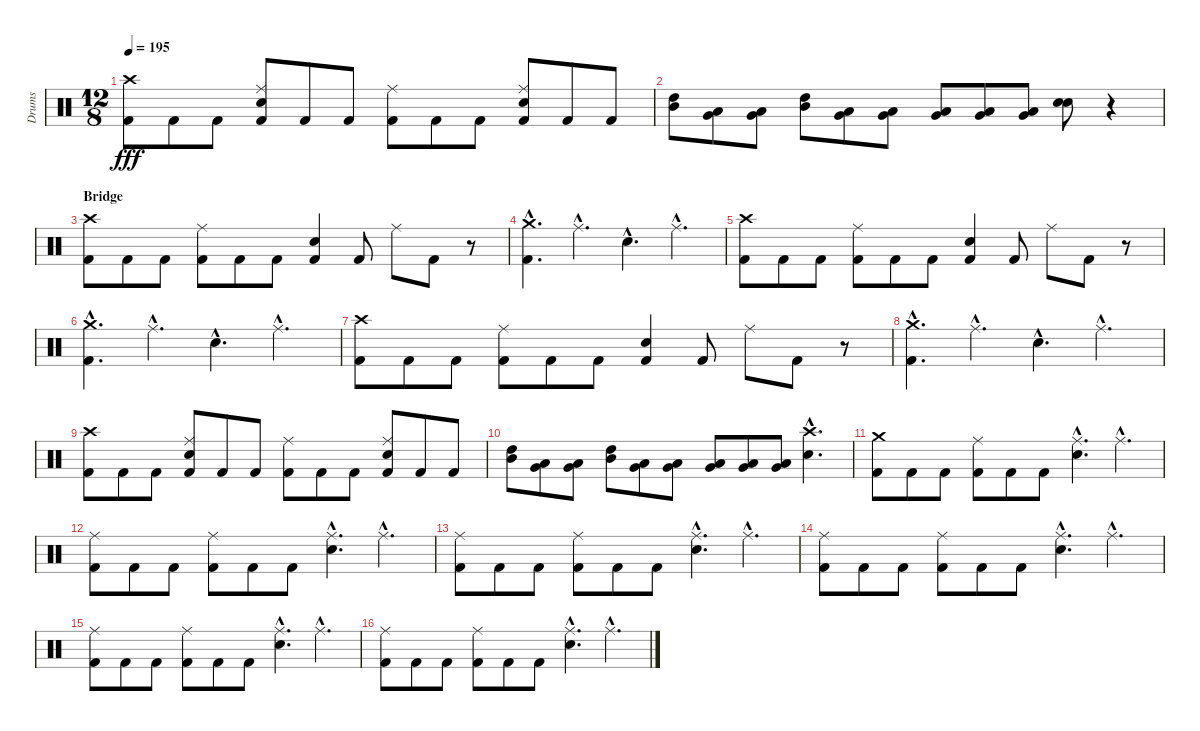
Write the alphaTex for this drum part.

\track ("Drums" "Drums") {instrument percussion}
\staff {score}
\articulation defaults
\ts (12 8)
\tempo 195
\clef neutral
\ks c
("Crash high (hit)" "Kick (hit) 2").8{dy fff} "Kick (hit) 2".8 "Kick (hit) 2".8 ("Ride (middle)" "Electric Snare (hit)" "Kick (hit) 2").8 "Kick (hit) 2".8 "Kick (hit) 2".8 ("Ride (middle)" "Kick (hit) 2").8 "Kick (hit) 2".8 "Kick (hit) 2".8 ("Ride (middle)" "Electric Snare (hit)" "Kick (hit) 2").8 "Kick (hit) 2".8 "Kick (hit) 2".8 |
("High Tom (hit)" "Mid Tom (hit)").8 ("Low Tom (hit)" "Very Low Tom (hit)").8 ("Low Tom (hit)" "Very Low Tom (hit)").8 ("High Tom (hit)" "Mid Tom (hit)").8 ("Low Tom (hit)" "Very Low Tom (hit)").8 ("Low Tom (hit)" "Very Low Tom (hit)").8 ("Low Tom (hit)" "Very Low Tom (hit)").8 ("Very Low Tom (hit)" "Low Floor Tom (hit)").8 ("Very Low Tom (hit)" "Low Floor Tom (hit)").8 ("Electric Snare (hit)" "Electric Snare (hit)").8 r.4 |
\section ("" "Bridge")
("Crash high (hit)" "Kick (hit) 2").8 "Kick (hit) 2".8 "Kick (hit) 2".8 ("Ride (middle)" "Kick (hit) 2").8 "Kick (hit) 2".8 "Kick (hit) 2".8 ("Electric Snare (hit)" "Kick (hit) 2").4 "Kick (hit) 2".8 "Ride (middle)".8 "Kick (hit) 2".8 r.8 |
("Crash medium (hit)"{hac} "Kick (hit) 2"{hac}).4{d} "Ride (middle)"{hac}.4{d} "Electric Snare (hit)"{hac}.4{d} "Ride (middle)"{hac}.4{d} |
("Crash high (hit)" "Kick (hit) 2").8 "Kick (hit) 2".8 "Kick (hit) 2".8 ("Ride (middle)" "Kick (hit) 2").8 "Kick (hit) 2".8 "Kick (hit) 2".8 ("Electric Snare (hit)" "Kick (hit) 2").4 "Kick (hit) 2".8 "Ride (middle)".8 "Kick (hit) 2".8 r.8 |
("Crash medium (hit)"{hac} "Kick (hit) 2"{hac}).4{d} "Ride (middle)"{hac}.4{d} "Electric Snare (hit)"{hac}.4{d} "Ride (middle)"{hac}.4{d} |
("Crash high (hit)" "Kick (hit) 2").8 "Kick (hit) 2".8 "Kick (hit) 2".8 ("Ride (middle)" "Kick (hit) 2").8 "Kick (hit) 2".8 "Kick (hit) 2".8 ("Electric Snare (hit)" "Kick (hit) 2").4 "Kick (hit) 2".8 "Ride (middle)".8 "Kick (hit) 2".8 r.8 |
("Crash medium (hit)"{hac} "Kick (hit) 2"{hac}).4{d} "Ride (middle)"{hac}.4{d} "Electric Snare (hit)"{hac}.4{d} "Ride (middle)"{hac}.4{d} |
("Crash high (hit)" "Kick (hit) 2").8 "Kick (hit) 2".8 "Kick (hit) 2".8 ("Ride (middle)" "Electric Snare (hit)" "Kick (hit) 2").8 "Kick (hit) 2".8 "Kick (hit) 2".8 ("Ride (middle)" "Kick (hit) 2").8 "Kick (hit) 2".8 "Kick (hit) 2".8 ("Ride (middle)" "Electric Snare (hit)" "Kick (hit) 2").8 "Kick (hit) 2".8 "Kick (hit) 2".8 |
("High Tom (hit)" "Mid Tom (hit)").8 ("Low Tom (hit)" "Very Low Tom (hit)").8 ("Low Tom (hit)" "Very Low Tom (hit)").8 ("High Tom (hit)" "Mid Tom (hit)").8 ("Low Tom (hit)" "Very Low Tom (hit)").8 ("Low Tom (hit)" "Very Low Tom (hit)").8 ("Low Tom (hit)" "Very Low Tom (hit)").8 ("Very Low Tom (hit)" "Low Floor Tom (hit)").8 ("Very Low Tom (hit)" "Low Floor Tom (hit)").8 ("Crash high (hit)"{hac} "Electric Snare (hit)"{hac}).4{d} |
("Crash medium (hit)" "Kick (hit) 2").8 "Kick (hit) 2".8 "Kick (hit) 2".8 ("Ride (middle)" "Kick (hit) 2").8 "Kick (hit) 2".8 "Kick (hit) 2".8 ("Ride (middle)"{hac} "Electric Snare (hit)"{hac}).4{d} "Ride (middle)"{hac}.4{d} |
("Ride (middle)" "Kick (hit) 2").8 "Kick (hit) 2".8 "Kick (hit) 2".8 ("Ride (middle)" "Kick (hit) 2").8 "Kick (hit) 2".8 "Kick (hit) 2".8 ("Ride (middle)"{hac} "Electric Snare (hit)"{hac}).4{d} "Ride (middle)"{hac}.4{d} |
("Ride (middle)" "Kick (hit) 2").8 "Kick (hit) 2".8 "Kick (hit) 2".8 ("Ride (middle)" "Kick (hit) 2").8 "Kick (hit) 2".8 "Kick (hit) 2".8 ("Ride (middle)"{hac} "Electric Snare (hit)"{hac}).4{d} "Ride (middle)"{hac}.4{d} |
("Ride (middle)" "Kick (hit) 2").8 "Kick (hit) 2".8 "Kick (hit) 2".8 ("Ride (middle)" "Kick (hit) 2").8 "Kick (hit) 2".8 "Kick (hit) 2".8 ("Ride (middle)"{hac} "Electric Snare (hit)"{hac}).4{d} "Ride (middle)"{hac}.4{d} |
("Ride (middle)" "Kick (hit) 2").8 "Kick (hit) 2".8 "Kick (hit) 2".8 ("Ride (middle)" "Kick (hit) 2").8 "Kick (hit) 2".8 "Kick (hit) 2".8 ("Ride (middle)"{hac} "Electric Snare (hit)"{hac}).4{d} "Ride (middle)"{hac}.4{d} |
("Ride (middle)" "Kick (hit) 2").8 "Kick (hit) 2".8 "Kick (hit) 2".8 ("Ride (middle)" "Kick (hit) 2").8 "Kick (hit) 2".8 "Kick (hit) 2".8 ("Ride (middle)"{hac} "Electric Snare (hit)"{hac}).4{d} "Ride (middle)"{hac}.4{d}
